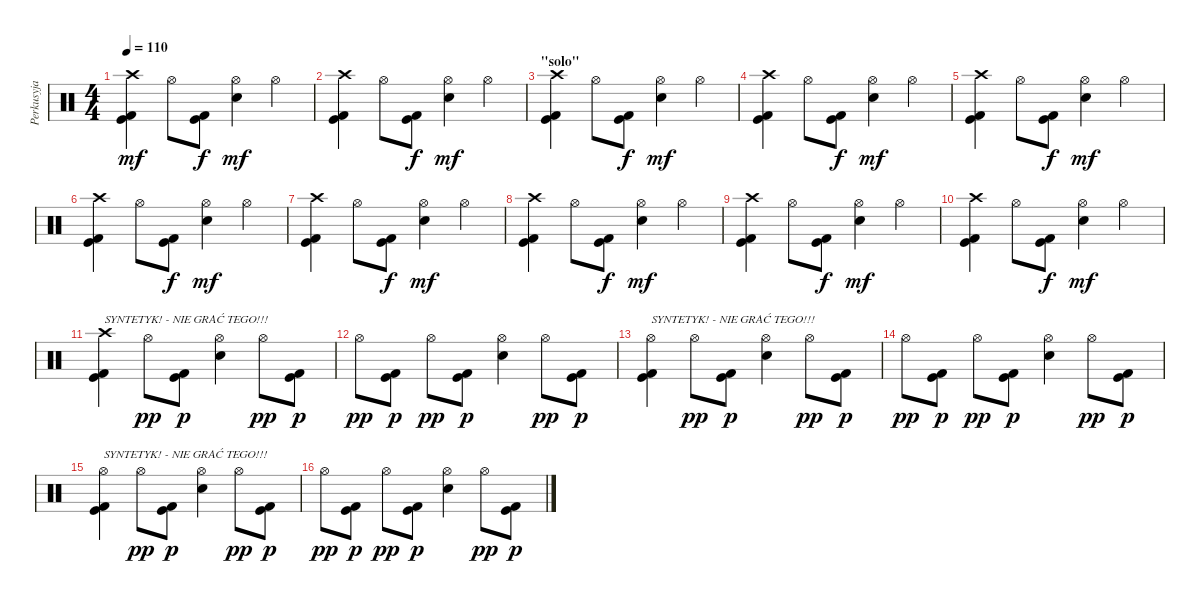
\track ("Perkusyja" "Perkusyja") {instrument percussion}
\staff {score}
\articulation defaults
\ts (4 4)
\tempo 110
\clef neutral
\ks c
("Crash high (hit)" "Kick (hit) 2" "Kick (hit)").4{dy mf} "Hi-Hat (open)".8 ("Kick (hit) 2" "Kick (hit)").8{dy f} ("Hi-Hat (open)" "Snare (hit) 2").4{dy mf} "Hi-Hat (open)".4 |
("Crash high (hit)" "Kick (hit) 2" "Kick (hit)").4 "Hi-Hat (open)".8 ("Kick (hit) 2" "Kick (hit)").8{dy f} ("Hi-Hat (open)" "Snare (hit) 2").4{dy mf} "Hi-Hat (open)".4 |
\section ("" "\"solo\"")
("Crash high (hit)" "Kick (hit) 2" "Kick (hit)").4 "Hi-Hat (open)".8 ("Kick (hit) 2" "Kick (hit)").8{dy f} ("Hi-Hat (open)" "Snare (hit) 2").4{dy mf} "Hi-Hat (open)".4 |
("Crash high (hit)" "Kick (hit) 2" "Kick (hit)").4 "Hi-Hat (open)".8 ("Kick (hit) 2" "Kick (hit)").8{dy f} ("Hi-Hat (open)" "Snare (hit) 2").4{dy mf} "Hi-Hat (open)".4 |
("Crash high (hit)" "Kick (hit) 2" "Kick (hit)").4 "Hi-Hat (open)".8 ("Kick (hit) 2" "Kick (hit)").8{dy f} ("Hi-Hat (open)" "Snare (hit) 2").4{dy mf} "Hi-Hat (open)".4 |
("Crash high (hit)" "Kick (hit) 2" "Kick (hit)").4 "Hi-Hat (open)".8 ("Kick (hit) 2" "Kick (hit)").8{dy f} ("Hi-Hat (open)" "Snare (hit) 2").4{dy mf} "Hi-Hat (open)".4 |
("Crash high (hit)" "Kick (hit) 2" "Kick (hit)").4 "Hi-Hat (open)".8 ("Kick (hit) 2" "Kick (hit)").8{dy f} ("Hi-Hat (open)" "Snare (hit) 2").4{dy mf} "Hi-Hat (open)".4 |
("Crash high (hit)" "Kick (hit) 2" "Kick (hit)").4 "Hi-Hat (open)".8 ("Kick (hit) 2" "Kick (hit)").8{dy f} ("Hi-Hat (open)" "Snare (hit) 2").4{dy mf} "Hi-Hat (open)".4 |
("Crash high (hit)" "Kick (hit) 2" "Kick (hit)").4 "Hi-Hat (open)".8 ("Kick (hit) 2" "Kick (hit)").8{dy f} ("Hi-Hat (open)" "Snare (hit) 2").4{dy mf} "Hi-Hat (open)".4 |
("Crash high (hit)" "Kick (hit) 2" "Kick (hit)").4 "Hi-Hat (open)".8 ("Kick (hit) 2" "Kick (hit)").8{dy f} ("Hi-Hat (open)" "Snare (hit) 2").4{dy mf} "Hi-Hat (open)".4 |
("Crash high (hit)" "Kick (hit) 2" "Kick (hit)").4{txt "SYNTETYK! - NIE GRAĆ TEGO!!!" volume 12} "Hi-Hat (open)".8{dy pp} ("Kick (hit) 2" "Kick (hit)").8{dy p} ("Hi-Hat (open)" "Electric Snare (hit)").4 "Hi-Hat (open)".8{dy pp} ("Kick (hit) 2" "Kick (hit)").8{dy p} |
"Hi-Hat (open)".8{dy pp} ("Kick (hit)" "Kick (hit) 2").8{dy p} "Hi-Hat (open)".8{dy pp} ("Kick (hit)" "Kick (hit) 2").8{dy p} ("Hi-Hat (open)" "Electric Snare (hit)").4 "Hi-Hat (open)".8{dy pp} ("Kick (hit) 2" "Kick (hit)").8{dy p} |
("Hi-Hat (open)" "Kick (hit) 2" "Kick (hit)").4{txt "SYNTETYK! - NIE GRAĆ TEGO!!!" volume 8} "Hi-Hat (open)".8{dy pp} ("Kick (hit) 2" "Kick (hit)").8{dy p} ("Hi-Hat (open)" "Electric Snare (hit)").4 "Hi-Hat (open)".8{dy pp} ("Kick (hit) 2" "Kick (hit)").8{dy p} |
"Hi-Hat (open)".8{dy pp} ("Kick (hit)" "Kick (hit) 2").8{dy p} "Hi-Hat (open)".8{dy pp} ("Kick (hit)" "Kick (hit) 2").8{dy p} ("Hi-Hat (open)" "Electric Snare (hit)").4 "Hi-Hat (open)".8{dy pp} ("Kick (hit) 2" "Kick (hit)").8{dy p} |
("Hi-Hat (open)" "Kick (hit) 2" "Kick (hit)").4{txt "SYNTETYK! - NIE GRAĆ TEGO!!!" volume 4} "Hi-Hat (open)".8{dy pp} ("Kick (hit) 2" "Kick (hit)").8{dy p} ("Hi-Hat (open)" "Electric Snare (hit)").4 "Hi-Hat (open)".8{dy pp} ("Kick (hit) 2" "Kick (hit)").8{dy p} |
"Hi-Hat (open)".8{dy pp} ("Kick (hit)" "Kick (hit) 2").8{dy p} "Hi-Hat (open)".8{dy pp} ("Kick (hit)" "Kick (hit) 2").8{dy p} ("Hi-Hat (open)" "Electric Snare (hit)").4 "Hi-Hat (open)".8{dy pp} ("Kick (hit) 2" "Kick (hit)").8{dy p}
